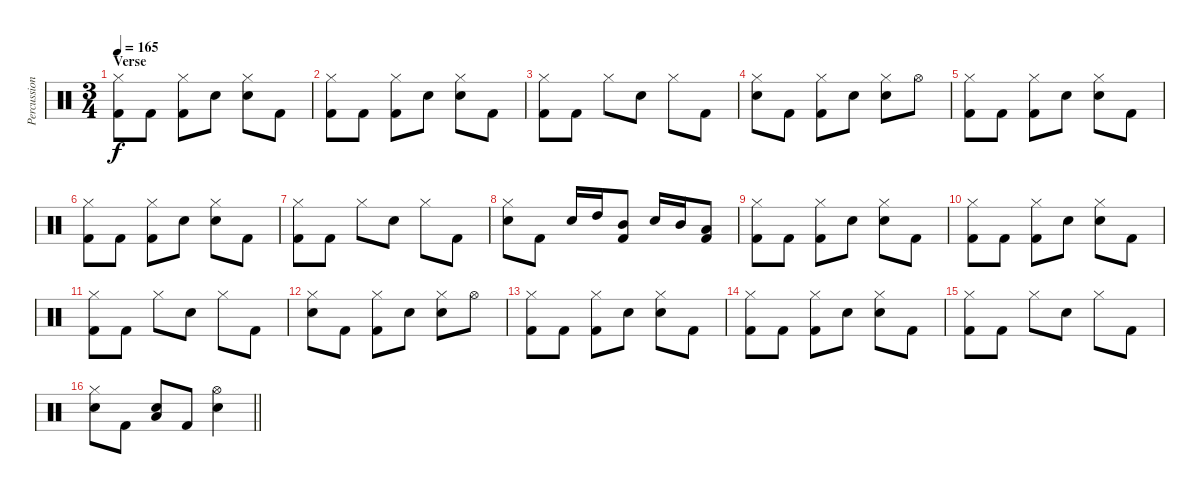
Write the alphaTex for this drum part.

\track ("Percussion" "Percussion") {instrument percussion}
\staff {score}
\articulation defaults
\ts (3 4)
\section ("" "Verse")
\tempo 165
\clef neutral
\ks c
("Hi-Hat (closed)" "Kick (hit) 2").8{dy f} "Kick (hit) 2".8 ("Hi-Hat (closed)" "Kick (hit) 2").8 "Snare (hit) 2".8 ("Hi-Hat (closed)" "Snare (hit) 2").8 "Kick (hit) 2".8 |
("Hi-Hat (closed)" "Kick (hit) 2").8 "Kick (hit) 2".8 ("Hi-Hat (closed)" "Kick (hit) 2").8 "Snare (hit) 2".8 ("Hi-Hat (closed)" "Snare (hit) 2").8 "Kick (hit) 2".8 |
("Hi-Hat (closed)" "Kick (hit) 2").8 "Kick (hit) 2".8 "Hi-Hat (closed)".8 "Snare (hit) 2".8 "Hi-Hat (closed)".8 "Kick (hit) 2".8 |
("Hi-Hat (closed)" "Snare (hit) 2").8 "Kick (hit) 2".8 ("Hi-Hat (closed)" "Kick (hit) 2").8 "Snare (hit) 2".8 ("Hi-Hat (closed)" "Snare (hit) 2").8 "Hi-Hat (open)".8 |
("Hi-Hat (closed)" "Kick (hit) 2").8 "Kick (hit) 2".8 ("Hi-Hat (closed)" "Kick (hit) 2").8 "Snare (hit) 2".8 ("Hi-Hat (closed)" "Snare (hit) 2").8 "Kick (hit) 2".8 |
("Hi-Hat (closed)" "Kick (hit) 2").8 "Kick (hit) 2".8 ("Hi-Hat (closed)" "Kick (hit) 2").8 "Snare (hit) 2".8 ("Hi-Hat (closed)" "Snare (hit) 2").8 "Kick (hit) 2".8 |
("Hi-Hat (closed)" "Kick (hit) 2").8 "Kick (hit) 2".8 "Hi-Hat (closed)".8 "Snare (hit) 2".8 "Hi-Hat (closed)".8 "Kick (hit) 2".8 |
("Hi-Hat (closed)" "Snare (hit) 2").8 "Kick (hit) 2".8 "Snare (hit) 2".16 "High Tom (hit)".16 ("Mid Tom (hit)" "Kick (hit) 2").8 "Snare (hit) 2".16 "Mid Tom (hit)".16 ("Low Tom (hit)" "Kick (hit) 2").8 |
("Hi-Hat (closed)" "Kick (hit) 2").8 "Kick (hit) 2".8 ("Hi-Hat (closed)" "Kick (hit) 2").8 "Snare (hit) 2".8 ("Hi-Hat (closed)" "Snare (hit) 2").8 "Kick (hit) 2".8 |
("Hi-Hat (closed)" "Kick (hit) 2").8 "Kick (hit) 2".8 ("Hi-Hat (closed)" "Kick (hit) 2").8 "Snare (hit) 2".8 ("Hi-Hat (closed)" "Snare (hit) 2").8 "Kick (hit) 2".8 |
("Hi-Hat (closed)" "Kick (hit) 2").8 "Kick (hit) 2".8 "Hi-Hat (closed)".8 "Snare (hit) 2".8 "Hi-Hat (closed)".8 "Kick (hit) 2".8 |
("Hi-Hat (closed)" "Snare (hit) 2").8 "Kick (hit) 2".8 ("Hi-Hat (closed)" "Kick (hit) 2").8 "Snare (hit) 2".8 ("Hi-Hat (closed)" "Snare (hit) 2").8 "Hi-Hat (open)".8 |
("Hi-Hat (closed)" "Kick (hit) 2").8 "Kick (hit) 2".8 ("Hi-Hat (closed)" "Kick (hit) 2").8 "Snare (hit) 2".8 ("Hi-Hat (closed)" "Snare (hit) 2").8 "Kick (hit) 2".8 |
("Hi-Hat (closed)" "Kick (hit) 2").8 "Kick (hit) 2".8 ("Hi-Hat (closed)" "Kick (hit) 2").8 "Snare (hit) 2".8 ("Hi-Hat (closed)" "Snare (hit) 2").8 "Kick (hit) 2".8 |
("Hi-Hat (closed)" "Kick (hit) 2").8 "Kick (hit) 2".8 "Hi-Hat (closed)".8 "Snare (hit) 2".8 "Hi-Hat (closed)".8 "Kick (hit) 2".8 |
\barLineRight lightlight
("Hi-Hat (closed)" "Snare (hit) 2").8 "Kick (hit) 2".8 ("Low Tom (hit)" "Snare (hit) 2").8 "Kick (hit) 2".8 ("Hi-Hat (open)" "Snare (hit) 2").4
